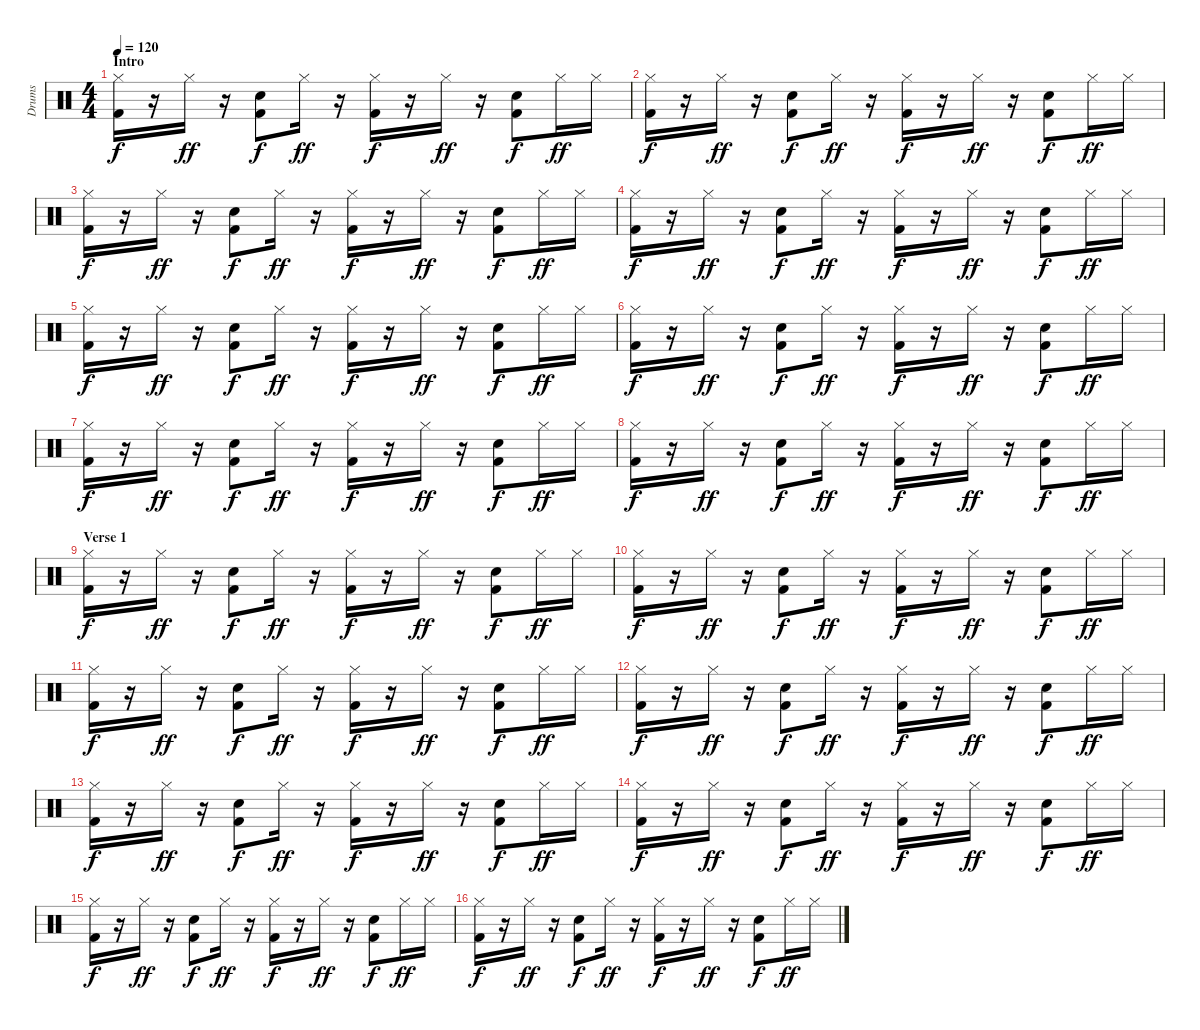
\track ("Drums" "Drums") {instrument percussion}
\staff {score}
\articulation defaults
\ts (4 4)
\section ("" "Intro")
\tempo 120
\clef neutral
\ks c
("Hi-Hat (closed)" "Kick (hit) 2").16{dy f} r.16 "Hi-Hat (closed)".16{dy ff} r.16 ("Electric Snare (hit)" "Kick (hit) 2").8{dy f} "Hi-Hat (closed)".16{dy ff} r.16 ("Hi-Hat (closed)" "Kick (hit) 2").16{dy f} r.16 "Hi-Hat (closed)".16{dy ff} r.16 ("Electric Snare (hit)" "Kick (hit) 2").8{dy f} "Hi-Hat (closed)".16{dy ff} "Hi-Hat (closed)".16 |
("Hi-Hat (closed)" "Kick (hit) 2").16{dy f} r.16 "Hi-Hat (closed)".16{dy ff} r.16 ("Electric Snare (hit)" "Kick (hit) 2").8{dy f} "Hi-Hat (closed)".16{dy ff} r.16 ("Hi-Hat (closed)" "Kick (hit) 2").16{dy f} r.16 "Hi-Hat (closed)".16{dy ff} r.16 ("Electric Snare (hit)" "Kick (hit) 2").8{dy f} "Hi-Hat (closed)".16{dy ff} "Hi-Hat (closed)".16 |
("Hi-Hat (closed)" "Kick (hit) 2").16{dy f} r.16 "Hi-Hat (closed)".16{dy ff} r.16 ("Electric Snare (hit)" "Kick (hit) 2").8{dy f} "Hi-Hat (closed)".16{dy ff} r.16 ("Hi-Hat (closed)" "Kick (hit) 2").16{dy f} r.16 "Hi-Hat (closed)".16{dy ff} r.16 ("Electric Snare (hit)" "Kick (hit) 2").8{dy f} "Hi-Hat (closed)".16{dy ff} "Hi-Hat (closed)".16 |
("Hi-Hat (closed)" "Kick (hit) 2").16{dy f} r.16 "Hi-Hat (closed)".16{dy ff} r.16 ("Electric Snare (hit)" "Kick (hit) 2").8{dy f} "Hi-Hat (closed)".16{dy ff} r.16 ("Hi-Hat (closed)" "Kick (hit) 2").16{dy f} r.16 "Hi-Hat (closed)".16{dy ff} r.16 ("Electric Snare (hit)" "Kick (hit) 2").8{dy f} "Hi-Hat (closed)".16{dy ff} "Hi-Hat (closed)".16 |
("Hi-Hat (closed)" "Kick (hit) 2").16{dy f} r.16 "Hi-Hat (closed)".16{dy ff} r.16 ("Electric Snare (hit)" "Kick (hit) 2").8{dy f} "Hi-Hat (closed)".16{dy ff} r.16 ("Hi-Hat (closed)" "Kick (hit) 2").16{dy f} r.16 "Hi-Hat (closed)".16{dy ff} r.16 ("Electric Snare (hit)" "Kick (hit) 2").8{dy f} "Hi-Hat (closed)".16{dy ff} "Hi-Hat (closed)".16 |
("Hi-Hat (closed)" "Kick (hit) 2").16{dy f} r.16 "Hi-Hat (closed)".16{dy ff} r.16 ("Electric Snare (hit)" "Kick (hit) 2").8{dy f} "Hi-Hat (closed)".16{dy ff} r.16 ("Hi-Hat (closed)" "Kick (hit) 2").16{dy f} r.16 "Hi-Hat (closed)".16{dy ff} r.16 ("Electric Snare (hit)" "Kick (hit) 2").8{dy f} "Hi-Hat (closed)".16{dy ff} "Hi-Hat (closed)".16 |
("Hi-Hat (closed)" "Kick (hit) 2").16{dy f} r.16 "Hi-Hat (closed)".16{dy ff} r.16 ("Electric Snare (hit)" "Kick (hit) 2").8{dy f} "Hi-Hat (closed)".16{dy ff} r.16 ("Hi-Hat (closed)" "Kick (hit) 2").16{dy f} r.16 "Hi-Hat (closed)".16{dy ff} r.16 ("Electric Snare (hit)" "Kick (hit) 2").8{dy f} "Hi-Hat (closed)".16{dy ff} "Hi-Hat (closed)".16 |
("Hi-Hat (closed)" "Kick (hit) 2").16{dy f} r.16 "Hi-Hat (closed)".16{dy ff} r.16 ("Electric Snare (hit)" "Kick (hit) 2").8{dy f} "Hi-Hat (closed)".16{dy ff} r.16 ("Hi-Hat (closed)" "Kick (hit) 2").16{dy f} r.16 "Hi-Hat (closed)".16{dy ff} r.16 ("Electric Snare (hit)" "Kick (hit) 2").8{dy f} "Hi-Hat (closed)".16{dy ff} "Hi-Hat (closed)".16 |
\section ("" "Verse 1")
("Hi-Hat (closed)" "Kick (hit) 2").16{dy f} r.16 "Hi-Hat (closed)".16{dy ff} r.16 ("Electric Snare (hit)" "Kick (hit) 2").8{dy f} "Hi-Hat (closed)".16{dy ff} r.16 ("Hi-Hat (closed)" "Kick (hit) 2").16{dy f} r.16 "Hi-Hat (closed)".16{dy ff} r.16 ("Electric Snare (hit)" "Kick (hit) 2").8{dy f} "Hi-Hat (closed)".16{dy ff} "Hi-Hat (closed)".16 |
("Hi-Hat (closed)" "Kick (hit) 2").16{dy f} r.16 "Hi-Hat (closed)".16{dy ff} r.16 ("Electric Snare (hit)" "Kick (hit) 2").8{dy f} "Hi-Hat (closed)".16{dy ff} r.16 ("Hi-Hat (closed)" "Kick (hit) 2").16{dy f} r.16 "Hi-Hat (closed)".16{dy ff} r.16 ("Electric Snare (hit)" "Kick (hit) 2").8{dy f} "Hi-Hat (closed)".16{dy ff} "Hi-Hat (closed)".16 |
("Hi-Hat (closed)" "Kick (hit) 2").16{dy f} r.16 "Hi-Hat (closed)".16{dy ff} r.16 ("Electric Snare (hit)" "Kick (hit) 2").8{dy f} "Hi-Hat (closed)".16{dy ff} r.16 ("Hi-Hat (closed)" "Kick (hit) 2").16{dy f} r.16 "Hi-Hat (closed)".16{dy ff} r.16 ("Electric Snare (hit)" "Kick (hit) 2").8{dy f} "Hi-Hat (closed)".16{dy ff} "Hi-Hat (closed)".16 |
("Hi-Hat (closed)" "Kick (hit) 2").16{dy f} r.16 "Hi-Hat (closed)".16{dy ff} r.16 ("Electric Snare (hit)" "Kick (hit) 2").8{dy f} "Hi-Hat (closed)".16{dy ff} r.16 ("Hi-Hat (closed)" "Kick (hit) 2").16{dy f} r.16 "Hi-Hat (closed)".16{dy ff} r.16 ("Electric Snare (hit)" "Kick (hit) 2").8{dy f} "Hi-Hat (closed)".16{dy ff} "Hi-Hat (closed)".16 |
("Hi-Hat (closed)" "Kick (hit) 2").16{dy f} r.16 "Hi-Hat (closed)".16{dy ff} r.16 ("Electric Snare (hit)" "Kick (hit) 2").8{dy f} "Hi-Hat (closed)".16{dy ff} r.16 ("Hi-Hat (closed)" "Kick (hit) 2").16{dy f} r.16 "Hi-Hat (closed)".16{dy ff} r.16 ("Electric Snare (hit)" "Kick (hit) 2").8{dy f} "Hi-Hat (closed)".16{dy ff} "Hi-Hat (closed)".16 |
("Hi-Hat (closed)" "Kick (hit) 2").16{dy f} r.16 "Hi-Hat (closed)".16{dy ff} r.16 ("Electric Snare (hit)" "Kick (hit) 2").8{dy f} "Hi-Hat (closed)".16{dy ff} r.16 ("Hi-Hat (closed)" "Kick (hit) 2").16{dy f} r.16 "Hi-Hat (closed)".16{dy ff} r.16 ("Electric Snare (hit)" "Kick (hit) 2").8{dy f} "Hi-Hat (closed)".16{dy ff} "Hi-Hat (closed)".16 |
("Hi-Hat (closed)" "Kick (hit) 2").16{dy f} r.16 "Hi-Hat (closed)".16{dy ff} r.16 ("Electric Snare (hit)" "Kick (hit) 2").8{dy f} "Hi-Hat (closed)".16{dy ff} r.16 ("Hi-Hat (closed)" "Kick (hit) 2").16{dy f} r.16 "Hi-Hat (closed)".16{dy ff} r.16 ("Electric Snare (hit)" "Kick (hit) 2").8{dy f} "Hi-Hat (closed)".16{dy ff} "Hi-Hat (closed)".16 |
("Hi-Hat (closed)" "Kick (hit) 2").16{dy f} r.16 "Hi-Hat (closed)".16{dy ff} r.16 ("Electric Snare (hit)" "Kick (hit) 2").8{dy f} "Hi-Hat (closed)".16{dy ff} r.16 ("Hi-Hat (closed)" "Kick (hit) 2").16{dy f} r.16 "Hi-Hat (closed)".16{dy ff} r.16 ("Electric Snare (hit)" "Kick (hit) 2").8{dy f} "Hi-Hat (closed)".16{dy ff} "Hi-Hat (closed)".16
